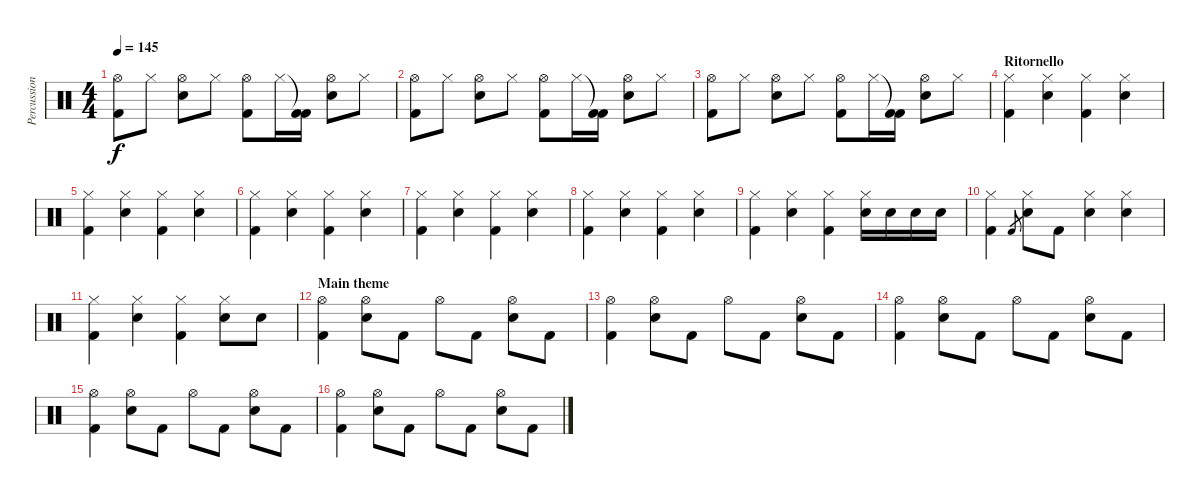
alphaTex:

\track ("Percussioni" "Percussion") {instrument percussion}
\staff {score}
\articulation defaults
\ts (4 4)
\tempo 145
\clef neutral
\ks c
("Hi-Hat (open)" "Kick (hit) 2").8{dy f} "Hi-Hat (closed)".8 ("Hi-Hat (open)" "Electric Snare (hit)").8 "Hi-Hat (closed)".8 ("Hi-Hat (open)" "Kick (hit) 2").8 "Hi-Hat (closed)".16 ("Kick (hit) 2"{t} "Kick (hit) 2").16 ("Hi-Hat (open)" "Electric Snare (hit)").8 "Hi-Hat (closed)".8 |
("Hi-Hat (open)" "Kick (hit) 2").8 "Hi-Hat (closed)".8 ("Hi-Hat (open)" "Electric Snare (hit)").8 "Hi-Hat (closed)".8 ("Hi-Hat (open)" "Kick (hit) 2").8 "Hi-Hat (closed)".16 ("Kick (hit) 2"{t} "Kick (hit) 2").16 ("Hi-Hat (open)" "Electric Snare (hit)").8 "Hi-Hat (closed)".8 |
("Hi-Hat (open)" "Kick (hit) 2").8 "Hi-Hat (closed)".8 ("Hi-Hat (open)" "Electric Snare (hit)").8 "Hi-Hat (closed)".8 ("Hi-Hat (open)" "Kick (hit) 2").8 "Hi-Hat (closed)".16 ("Kick (hit) 2"{t} "Kick (hit) 2").16 ("Hi-Hat (open)" "Electric Snare (hit)").8 "Hi-Hat (closed)".8 |
\section ("" "Ritornello")
("Hi-Hat (closed)" "Kick (hit) 2").4 ("Hi-Hat (closed)" "Electric Snare (hit)").4 ("Hi-Hat (closed)" "Kick (hit) 2").4 ("Hi-Hat (closed)" "Electric Snare (hit)").4 |
("Hi-Hat (closed)" "Kick (hit) 2").4 ("Hi-Hat (closed)" "Electric Snare (hit)").4 ("Hi-Hat (closed)" "Kick (hit) 2").4 ("Hi-Hat (closed)" "Electric Snare (hit)").4 |
("Hi-Hat (closed)" "Kick (hit) 2").4 ("Hi-Hat (closed)" "Electric Snare (hit)").4 ("Hi-Hat (closed)" "Kick (hit) 2").4 ("Hi-Hat (closed)" "Electric Snare (hit)").4 |
("Hi-Hat (closed)" "Kick (hit) 2").4 ("Hi-Hat (closed)" "Electric Snare (hit)").4 ("Hi-Hat (closed)" "Kick (hit) 2").4 ("Hi-Hat (closed)" "Electric Snare (hit)").4 |
("Hi-Hat (closed)" "Kick (hit) 2").4 ("Hi-Hat (closed)" "Electric Snare (hit)").4 ("Hi-Hat (closed)" "Kick (hit) 2").4 ("Hi-Hat (closed)" "Electric Snare (hit)").4 |
("Hi-Hat (closed)" "Kick (hit) 2").4 ("Hi-Hat (closed)" "Electric Snare (hit)").4 ("Hi-Hat (closed)" "Kick (hit) 2").4 ("Hi-Hat (closed)" "Electric Snare (hit)").16 "Electric Snare (hit)".16 "Electric Snare (hit)".16 "Electric Snare (hit)".16 |
("Hi-Hat (closed)" "Kick (hit) 2").4 "Kick (hit) 2".8{gr} ("Hi-Hat (closed)" "Electric Snare (hit)").8 "Kick (hit) 2".8 ("Hi-Hat (closed)" "Electric Snare (hit)").4 ("Hi-Hat (closed)" "Electric Snare (hit)").4 |
("Hi-Hat (closed)" "Kick (hit) 2").4 ("Hi-Hat (closed)" "Electric Snare (hit)").4 ("Hi-Hat (closed)" "Kick (hit) 2").4 ("Hi-Hat (closed)" "Electric Snare (hit)").8 "Electric Snare (hit)".8 |
\section ("" "Main theme")
("Hi-Hat (open)" "Kick (hit) 2").4 ("Hi-Hat (open)" "Electric Snare (hit)").8 "Kick (hit) 2".8 "Hi-Hat (open)".8 "Kick (hit) 2".8 ("Hi-Hat (open)" "Electric Snare (hit)").8 "Kick (hit) 2".8 |
("Hi-Hat (open)" "Kick (hit) 2").4 ("Hi-Hat (open)" "Electric Snare (hit)").8 "Kick (hit) 2".8 "Hi-Hat (open)".8 "Kick (hit) 2".8 ("Hi-Hat (open)" "Electric Snare (hit)").8 "Kick (hit) 2".8 |
("Hi-Hat (open)" "Kick (hit) 2").4 ("Hi-Hat (open)" "Electric Snare (hit)").8 "Kick (hit) 2".8 "Hi-Hat (open)".8 "Kick (hit) 2".8 ("Hi-Hat (open)" "Electric Snare (hit)").8 "Kick (hit) 2".8 |
("Hi-Hat (open)" "Kick (hit) 2").4 ("Hi-Hat (open)" "Electric Snare (hit)").8 "Kick (hit) 2".8 "Hi-Hat (open)".8 "Kick (hit) 2".8 ("Hi-Hat (open)" "Electric Snare (hit)").8 "Kick (hit) 2".8 |
("Hi-Hat (open)" "Kick (hit) 2").4 ("Hi-Hat (open)" "Electric Snare (hit)").8 "Kick (hit) 2".8 "Hi-Hat (open)".8 "Kick (hit) 2".8 ("Hi-Hat (open)" "Electric Snare (hit)").8 "Kick (hit) 2".8
